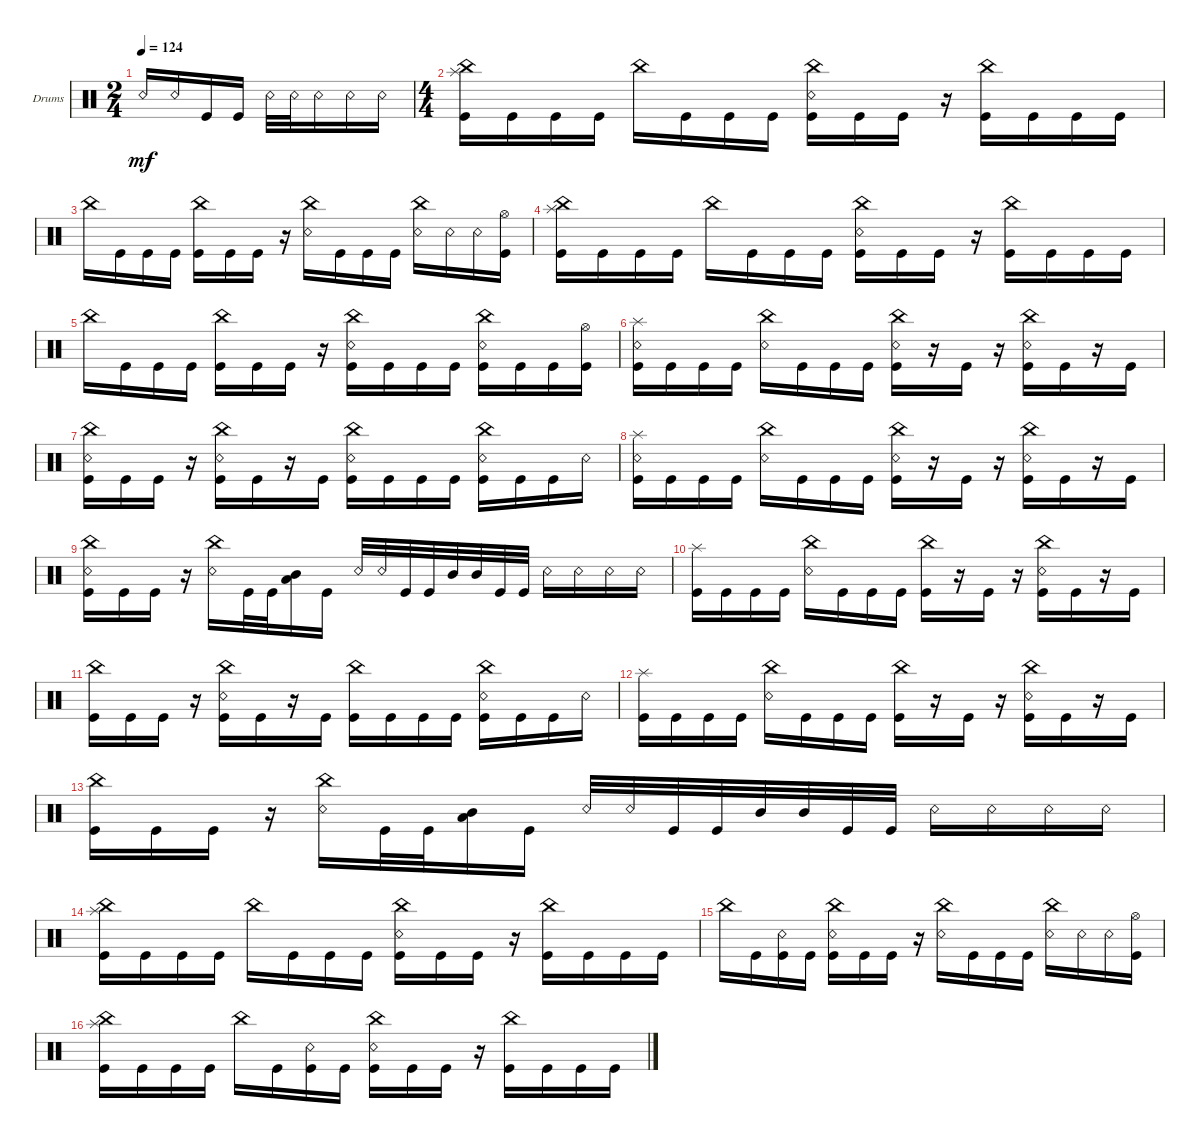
\defaultSystemsLayout 4
\bracketExtendMode groupsimilarinstruments
\firstSystemTrackNameOrientation horizontal
\otherSystemsTrackNameOrientation horizontal
\track ("Drums" "Drums") {instrument percussion}
\staff {score}
\articulation defaults
\ts (2 4)
\tempo 124
\clef neutral
\ks c "Snare (rim shot)".16{dy mf} "Snare (rim shot)".16 "Kick (hit)".16 "Kick (hit)".16 "Snare (rim shot)".32 "Snare (rim shot)".32 "Snare (rim shot)".16 "Snare (rim shot)".16 "Snare (rim shot)".16
|
\ts (4 4)
("Kick (hit)" "China (hit)" "Splash (hit)").16 "Kick (hit)".16 "Kick (hit)".16 "Kick (hit)".16 "China (hit)".16 "Kick (hit)".16 "Kick (hit)".16 "Kick (hit)".16 ("Kick (hit)" "China (hit)" "Snare (rim shot)").16 "Kick (hit)".16 "Kick (hit)".16 r.16 ("Kick (hit)" "China (hit)").16 "Kick (hit)".16 "Kick (hit)".16 "Kick (hit)".16 |
"China (hit)".16 "Kick (hit)".16 "Kick (hit)".16 "Kick (hit)".16 ("Kick (hit)" "China (hit)").16 "Kick (hit)".16 "Kick (hit)".16 r.16 ("China (hit)" "Snare (rim shot)").16 "Kick (hit)".16 "Kick (hit)".16 "Kick (hit)".16 ("China (hit)" "Snare (rim shot)").16 "Snare (rim shot)".16 "Snare (rim shot)".16 ("Kick (hit)" "Hi-Hat (open)").16 |
("Kick (hit)" "China (hit)" "Splash (hit)").16 "Kick (hit)".16 "Kick (hit)".16 "Kick (hit)".16 "China (hit)".16 "Kick (hit)".16 "Kick (hit)".16 "Kick (hit)".16 ("Kick (hit)" "China (hit)" "Snare (rim shot)").16 "Kick (hit)".16 "Kick (hit)".16 r.16 ("Kick (hit)" "China (hit)").16 "Kick (hit)".16 "Kick (hit)".16 "Kick (hit)".16 |
"China (hit)".16 "Kick (hit)".16 "Kick (hit)".16 "Kick (hit)".16 ("Kick (hit)" "China (hit)").16 "Kick (hit)".16 "Kick (hit)".16 r.16 ("Kick (hit)" "China (hit)" "Snare (rim shot)").16 "Kick (hit)".16 "Kick (hit)".16 "Kick (hit)".16 ("Kick (hit)" "China (hit)" "Snare (rim shot)").16 "Kick (hit)".16 "Kick (hit)".16 ("Kick (hit)" "Hi-Hat (open)").16 |
("Kick (hit)" "Splash (hit)" "Snare (rim shot)").16 "Kick (hit)".16 "Kick (hit)".16 "Kick (hit)".16 ("China (hit)" "Snare (rim shot)").16 "Kick (hit)".16 "Kick (hit)".16 "Kick (hit)".16 ("Kick (hit)" "China (hit)" "Snare (rim shot)").16 r.16 "Kick (hit)".16 r.16 ("Kick (hit)" "China (hit)" "Snare (rim shot)").16 "Kick (hit)".16 r.16 "Kick (hit)".16 |
("Kick (hit)" "China (hit)" "Snare (rim shot)").16 "Kick (hit)".16 "Kick (hit)".16 r.16 ("Kick (hit)" "China (hit)" "Snare (rim shot)").16 "Kick (hit)".16 r.16 "Kick (hit)".16 ("Kick (hit)" "China (hit)" "Snare (rim shot)").16 "Kick (hit)".16 "Kick (hit)".16 "Kick (hit)".16 ("Kick (hit)" "Snare (rim shot)" "China (hit)").16 "Kick (hit)".16 "Kick (hit)".16 "Snare (rim shot)".16 |
("Kick (hit)" "Splash (hit)" "Snare (rim shot)").16 "Kick (hit)".16 "Kick (hit)".16 "Kick (hit)".16 ("China (hit)" "Snare (rim shot)").16 "Kick (hit)".16 "Kick (hit)".16 "Kick (hit)".16 ("Kick (hit)" "China (hit)" "Snare (rim shot)").16 r.16 "Kick (hit)".16 r.16 ("Kick (hit)" "China (hit)" "Snare (rim shot)").16 "Kick (hit)".16 r.16 "Kick (hit)".16 |
("Kick (hit)" "China (hit)" "Snare (rim shot)").16 "Kick (hit)".16 "Kick (hit)".16 r.16 ("Snare (rim shot)" "China (hit)").16 "Kick (hit)".32 "Kick (hit)".32 ("Mid Tom (hit)" "Low Tom (hit)").16 "Kick (hit)".16 "Snare (rim shot)".32 "Snare (rim shot)".32 "Kick (hit)".32 "Kick (hit)".32 "Mid Tom (hit)".32 "Mid Tom (hit)".32 "Kick (hit)".32 "Kick (hit)".32 "Snare (rim shot)".16 "Snare (rim shot)".16 "Snare (rim shot)".16 "Snare (rim shot)".16 |
("Kick (hit)" "Splash (hit)").16 "Kick (hit)".16 "Kick (hit)".16 "Kick (hit)".16 ("China (hit)" "Snare (rim shot)").16 "Kick (hit)".16 "Kick (hit)".16 "Kick (hit)".16 ("Kick (hit)" "China (hit)").16 r.16 "Kick (hit)".16 r.16 ("Kick (hit)" "China (hit)" "Snare (rim shot)").16 "Kick (hit)".16 r.16 "Kick (hit)".16 |
("Kick (hit)" "China (hit)").16 "Kick (hit)".16 "Kick (hit)".16 r.16 ("Kick (hit)" "China (hit)" "Snare (rim shot)").16 "Kick (hit)".16 r.16 "Kick (hit)".16 ("Kick (hit)" "China (hit)").16 "Kick (hit)".16 "Kick (hit)".16 "Kick (hit)".16 ("Kick (hit)" "China (hit)" "Snare (rim shot)").16 "Kick (hit)".16 "Kick (hit)".16 "Snare (rim shot)".16 |
("Kick (hit)" "Splash (hit)").16 "Kick (hit)".16 "Kick (hit)".16 "Kick (hit)".16 ("China (hit)" "Snare (rim shot)").16 "Kick (hit)".16 "Kick (hit)".16 "Kick (hit)".16 ("Kick (hit)" "China (hit)").16 r.16 "Kick (hit)".16 r.16 ("Kick (hit)" "China (hit)" "Snare (rim shot)").16 "Kick (hit)".16 r.16 "Kick (hit)".16 |
("Kick (hit)" "China (hit)").16 "Kick (hit)".16 "Kick (hit)".16 r.16 ("China (hit)" "Snare (rim shot)").16 "Kick (hit)".32 "Kick (hit)".32 ("Mid Tom (hit)" "Low Tom (hit)").16 "Kick (hit)".16 "Snare (rim shot)".32 "Snare (rim shot)".32 "Kick (hit)".32 "Kick (hit)".32 "Mid Tom (hit)".32 "Mid Tom (hit)".32 "Kick (hit)".32 "Kick (hit)".32 "Snare (rim shot)".16 "Snare (rim shot)".16 "Snare (rim shot)".16 "Snare (rim shot)".16 |
("Kick (hit)" "China (hit)" "Splash (hit)").16 "Kick (hit)".16 "Kick (hit)".16 "Kick (hit)".16 "China (hit)".16 "Kick (hit)".16 "Kick (hit)".16 "Kick (hit)".16 ("Kick (hit)" "China (hit)" "Snare (rim shot)").16 "Kick (hit)".16 "Kick (hit)".16 r.16 ("Kick (hit)" "China (hit)").16 "Kick (hit)".16 "Kick (hit)".16 "Kick (hit)".16 |
"China (hit)".16 "Kick (hit)".16 ("Kick (hit)" "Snare (rim shot)").16 "Kick (hit)".16 ("Kick (hit)" "China (hit)" "Snare (rim shot)").16 "Kick (hit)".16 "Kick (hit)".16 r.16 ("China (hit)" "Snare (rim shot)").16 "Kick (hit)".16 "Kick (hit)".16 "Kick (hit)".16 ("China (hit)" "Snare (rim shot)").16 "Snare (rim shot)".16 "Snare (rim shot)".16 ("Kick (hit)" "Hi-Hat (open)").16 |
("Kick (hit)" "China (hit)" "Splash (hit)").16 "Kick (hit)".16 "Kick (hit)".16 "Kick (hit)".16 "China (hit)".16 "Kick (hit)".16 ("Kick (hit)" "Snare (rim shot)").16 "Kick (hit)".16 ("Kick (hit)" "China (hit)" "Snare (rim shot)").16 "Kick (hit)".16 "Kick (hit)".16 r.16 ("Kick (hit)" "China (hit)").16 "Kick (hit)".16 "Kick (hit)".16 "Kick (hit)".16
